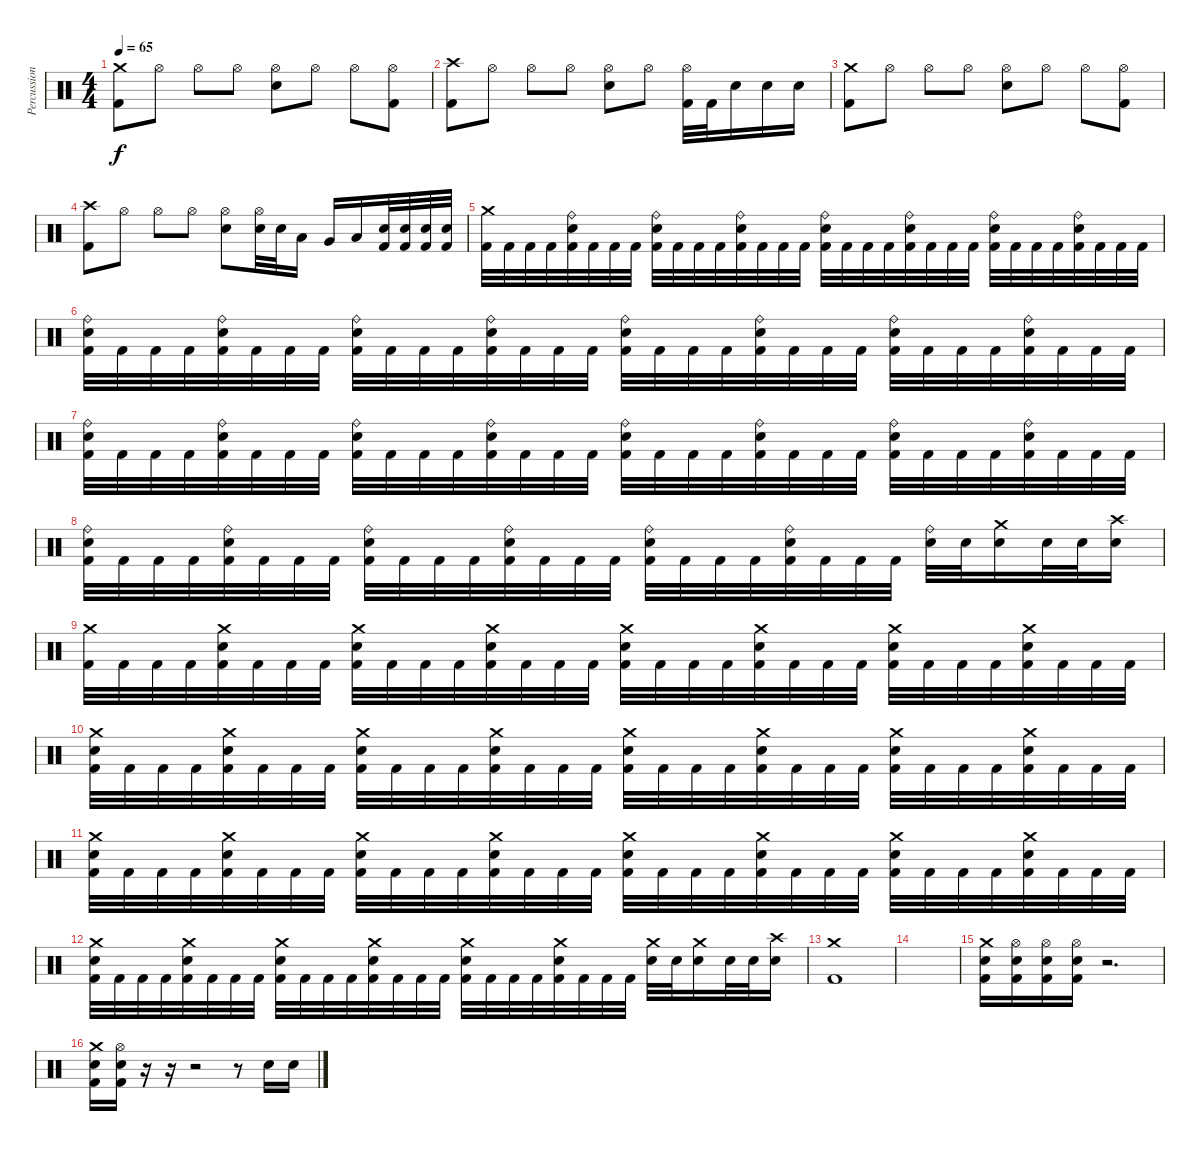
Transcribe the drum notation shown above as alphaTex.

\track ("Percussion" "Percussion") {instrument percussion}
\staff {score}
\articulation defaults
\ts (4 4)
\tempo 65
\clef neutral
\ks c
("Crash medium (hit)" "Kick (hit) 2").8{dy f} "Hi-Hat (open)".8 "Hi-Hat (open)".8 "Hi-Hat (open)".8 ("Hi-Hat (open)" "Electric Snare (hit)").8 "Hi-Hat (open)".8 "Hi-Hat (open)".8 ("Hi-Hat (open)" "Kick (hit) 2").8 |
("Crash high (hit)" "Kick (hit) 2").8 "Hi-Hat (open)".8 "Hi-Hat (open)".8 "Hi-Hat (open)".8 ("Hi-Hat (open)" "Electric Snare (hit)").8 "Hi-Hat (open)".8 ("Hi-Hat (open)" "Kick (hit) 2").32 "Kick (hit) 2".32 "Electric Snare (hit)".16 "Electric Snare (hit)".16 "Electric Snare (hit)".16 |
("Crash medium (hit)" "Kick (hit) 2").8 "Hi-Hat (open)".8 "Hi-Hat (open)".8 "Hi-Hat (open)".8 ("Hi-Hat (open)" "Electric Snare (hit)").8 "Hi-Hat (open)".8 "Hi-Hat (open)".8 ("Hi-Hat (open)" "Kick (hit) 2").8 |
("Crash high (hit)" "Kick (hit) 2").8 "Hi-Hat (open)".8 "Hi-Hat (open)".8 "Hi-Hat (open)".8 ("Hi-Hat (open)" "Electric Snare (hit)").8 ("Hi-Hat (open)" "Electric Snare (hit)").32 "Electric Snare (hit)".32 "Low Tom (hit)".16 "Very Low Tom (hit)".16 "Low Floor Tom (hit)".16 ("Electric Snare (hit)" "Kick (hit) 2").32 ("Electric Snare (hit)" "Kick (hit) 2").32 ("Electric Snare (hit)" "Kick (hit) 2").32 ("Electric Snare (hit)" "Kick (hit) 2").32 |
("Crash medium (hit)" "Kick (hit) 2").32 "Kick (hit) 2".32 "Kick (hit) 2".32 "Kick (hit) 2".32 ("Ride (bell)" "Electric Snare (hit)" "Kick (hit) 2").32 "Kick (hit) 2".32 "Kick (hit) 2".32 "Kick (hit) 2".32 ("Ride (bell)" "Electric Snare (hit)" "Kick (hit) 2").32 "Kick (hit) 2".32 "Kick (hit) 2".32 "Kick (hit) 2".32 ("Ride (bell)" "Electric Snare (hit)" "Kick (hit) 2").32 "Kick (hit) 2".32 "Kick (hit) 2".32 "Kick (hit) 2".32 ("Ride (bell)" "Electric Snare (hit)" "Kick (hit) 2").32 "Kick (hit) 2".32 "Kick (hit) 2".32 "Kick (hit) 2".32 ("Ride (bell)" "Electric Snare (hit)" "Kick (hit) 2").32 "Kick (hit) 2".32 "Kick (hit) 2".32 "Kick (hit) 2".32 ("Ride (bell)" "Electric Snare (hit)" "Kick (hit) 2").32 "Kick (hit) 2".32 "Kick (hit) 2".32 "Kick (hit) 2".32 ("Ride (bell)" "Electric Snare (hit)" "Kick (hit) 2").32 "Kick (hit) 2".32 "Kick (hit) 2".32 "Kick (hit) 2".32 |
("Ride (bell)" "Electric Snare (hit)" "Kick (hit) 2").32 "Kick (hit) 2".32 "Kick (hit) 2".32 "Kick (hit) 2".32 ("Ride (bell)" "Electric Snare (hit)" "Kick (hit) 2").32 "Kick (hit) 2".32 "Kick (hit) 2".32 "Kick (hit) 2".32 ("Ride (bell)" "Electric Snare (hit)" "Kick (hit) 2").32 "Kick (hit) 2".32 "Kick (hit) 2".32 "Kick (hit) 2".32 ("Ride (bell)" "Electric Snare (hit)" "Kick (hit) 2").32 "Kick (hit) 2".32 "Kick (hit) 2".32 "Kick (hit) 2".32 ("Ride (bell)" "Electric Snare (hit)" "Kick (hit) 2").32 "Kick (hit) 2".32 "Kick (hit) 2".32 "Kick (hit) 2".32 ("Ride (bell)" "Electric Snare (hit)" "Kick (hit) 2").32 "Kick (hit) 2".32 "Kick (hit) 2".32 "Kick (hit) 2".32 ("Ride (bell)" "Electric Snare (hit)" "Kick (hit) 2").32 "Kick (hit) 2".32 "Kick (hit) 2".32 "Kick (hit) 2".32 ("Ride (bell)" "Electric Snare (hit)" "Kick (hit) 2").32 "Kick (hit) 2".32 "Kick (hit) 2".32 "Kick (hit) 2".32 |
("Ride (bell)" "Electric Snare (hit)" "Kick (hit) 2").32 "Kick (hit) 2".32 "Kick (hit) 2".32 "Kick (hit) 2".32 ("Ride (bell)" "Electric Snare (hit)" "Kick (hit) 2").32 "Kick (hit) 2".32 "Kick (hit) 2".32 "Kick (hit) 2".32 ("Ride (bell)" "Electric Snare (hit)" "Kick (hit) 2").32 "Kick (hit) 2".32 "Kick (hit) 2".32 "Kick (hit) 2".32 ("Ride (bell)" "Electric Snare (hit)" "Kick (hit) 2").32 "Kick (hit) 2".32 "Kick (hit) 2".32 "Kick (hit) 2".32 ("Ride (bell)" "Electric Snare (hit)" "Kick (hit) 2").32 "Kick (hit) 2".32 "Kick (hit) 2".32 "Kick (hit) 2".32 ("Ride (bell)" "Electric Snare (hit)" "Kick (hit) 2").32 "Kick (hit) 2".32 "Kick (hit) 2".32 "Kick (hit) 2".32 ("Ride (bell)" "Electric Snare (hit)" "Kick (hit) 2").32 "Kick (hit) 2".32 "Kick (hit) 2".32 "Kick (hit) 2".32 ("Ride (bell)" "Electric Snare (hit)" "Kick (hit) 2").32 "Kick (hit) 2".32 "Kick (hit) 2".32 "Kick (hit) 2".32 |
("Ride (bell)" "Electric Snare (hit)" "Kick (hit) 2").32 "Kick (hit) 2".32 "Kick (hit) 2".32 "Kick (hit) 2".32 ("Ride (bell)" "Electric Snare (hit)" "Kick (hit) 2").32 "Kick (hit) 2".32 "Kick (hit) 2".32 "Kick (hit) 2".32 ("Ride (bell)" "Electric Snare (hit)" "Kick (hit) 2").32 "Kick (hit) 2".32 "Kick (hit) 2".32 "Kick (hit) 2".32 ("Ride (bell)" "Electric Snare (hit)" "Kick (hit) 2").32 "Kick (hit) 2".32 "Kick (hit) 2".32 "Kick (hit) 2".32 ("Ride (bell)" "Electric Snare (hit)" "Kick (hit) 2").32 "Kick (hit) 2".32 "Kick (hit) 2".32 "Kick (hit) 2".32 ("Ride (bell)" "Electric Snare (hit)" "Kick (hit) 2").32 "Kick (hit) 2".32 "Kick (hit) 2".32 "Kick (hit) 2".32 ("Ride (bell)" "Electric Snare (hit)").32 "Electric Snare (hit)".32 ("Crash medium (hit)" "Electric Snare (hit)").16 "Electric Snare (hit)".32 "Electric Snare (hit)".32 ("Crash high (hit)" "Electric Snare (hit)").16 |
("Crash medium (hit)" "Kick (hit) 2").32 "Kick (hit) 2".32 "Kick (hit) 2".32 "Kick (hit) 2".32 ("Crash medium (hit)" "Electric Snare (hit)" "Kick (hit) 2").32 "Kick (hit) 2".32 "Kick (hit) 2".32 "Kick (hit) 2".32 ("Crash medium (hit)" "Electric Snare (hit)" "Kick (hit) 2").32 "Kick (hit) 2".32 "Kick (hit) 2".32 "Kick (hit) 2".32 ("Crash medium (hit)" "Electric Snare (hit)" "Kick (hit) 2").32 "Kick (hit) 2".32 "Kick (hit) 2".32 "Kick (hit) 2".32 ("Crash medium (hit)" "Electric Snare (hit)" "Kick (hit) 2").32 "Kick (hit) 2".32 "Kick (hit) 2".32 "Kick (hit) 2".32 ("Crash medium (hit)" "Electric Snare (hit)" "Kick (hit) 2").32 "Kick (hit) 2".32 "Kick (hit) 2".32 "Kick (hit) 2".32 ("Crash medium (hit)" "Electric Snare (hit)" "Kick (hit) 2").32 "Kick (hit) 2".32 "Kick (hit) 2".32 "Kick (hit) 2".32 ("Crash medium (hit)" "Electric Snare (hit)" "Kick (hit) 2").32 "Kick (hit) 2".32 "Kick (hit) 2".32 "Kick (hit) 2".32 |
("Crash medium (hit)" "Electric Snare (hit)" "Kick (hit) 2").32 "Kick (hit) 2".32 "Kick (hit) 2".32 "Kick (hit) 2".32 ("Crash medium (hit)" "Electric Snare (hit)" "Kick (hit) 2").32 "Kick (hit) 2".32 "Kick (hit) 2".32 "Kick (hit) 2".32 ("Crash medium (hit)" "Electric Snare (hit)" "Kick (hit) 2").32 "Kick (hit) 2".32 "Kick (hit) 2".32 "Kick (hit) 2".32 ("Crash medium (hit)" "Electric Snare (hit)" "Kick (hit) 2").32 "Kick (hit) 2".32 "Kick (hit) 2".32 "Kick (hit) 2".32 ("Crash medium (hit)" "Electric Snare (hit)" "Kick (hit) 2").32 "Kick (hit) 2".32 "Kick (hit) 2".32 "Kick (hit) 2".32 ("Crash medium (hit)" "Electric Snare (hit)" "Kick (hit) 2").32 "Kick (hit) 2".32 "Kick (hit) 2".32 "Kick (hit) 2".32 ("Crash medium (hit)" "Electric Snare (hit)" "Kick (hit) 2").32 "Kick (hit) 2".32 "Kick (hit) 2".32 "Kick (hit) 2".32 ("Crash medium (hit)" "Electric Snare (hit)" "Kick (hit) 2").32 "Kick (hit) 2".32 "Kick (hit) 2".32 "Kick (hit) 2".32 |
("Crash medium (hit)" "Electric Snare (hit)" "Kick (hit) 2").32 "Kick (hit) 2".32 "Kick (hit) 2".32 "Kick (hit) 2".32 ("Crash medium (hit)" "Electric Snare (hit)" "Kick (hit) 2").32 "Kick (hit) 2".32 "Kick (hit) 2".32 "Kick (hit) 2".32 ("Crash medium (hit)" "Electric Snare (hit)" "Kick (hit) 2").32 "Kick (hit) 2".32 "Kick (hit) 2".32 "Kick (hit) 2".32 ("Crash medium (hit)" "Electric Snare (hit)" "Kick (hit) 2").32 "Kick (hit) 2".32 "Kick (hit) 2".32 "Kick (hit) 2".32 ("Crash medium (hit)" "Electric Snare (hit)" "Kick (hit) 2").32 "Kick (hit) 2".32 "Kick (hit) 2".32 "Kick (hit) 2".32 ("Crash medium (hit)" "Electric Snare (hit)" "Kick (hit) 2").32 "Kick (hit) 2".32 "Kick (hit) 2".32 "Kick (hit) 2".32 ("Crash medium (hit)" "Electric Snare (hit)" "Kick (hit) 2").32 "Kick (hit) 2".32 "Kick (hit) 2".32 "Kick (hit) 2".32 ("Crash medium (hit)" "Electric Snare (hit)" "Kick (hit) 2").32 "Kick (hit) 2".32 "Kick (hit) 2".32 "Kick (hit) 2".32 |
("Crash medium (hit)" "Electric Snare (hit)" "Kick (hit) 2").32 "Kick (hit) 2".32 "Kick (hit) 2".32 "Kick (hit) 2".32 ("Crash medium (hit)" "Electric Snare (hit)" "Kick (hit) 2").32 "Kick (hit) 2".32 "Kick (hit) 2".32 "Kick (hit) 2".32 ("Crash medium (hit)" "Electric Snare (hit)" "Kick (hit) 2").32 "Kick (hit) 2".32 "Kick (hit) 2".32 "Kick (hit) 2".32 ("Crash medium (hit)" "Electric Snare (hit)" "Kick (hit) 2").32 "Kick (hit) 2".32 "Kick (hit) 2".32 "Kick (hit) 2".32 ("Crash medium (hit)" "Electric Snare (hit)" "Kick (hit) 2").32 "Kick (hit) 2".32 "Kick (hit) 2".32 "Kick (hit) 2".32 ("Crash medium (hit)" "Electric Snare (hit)" "Kick (hit) 2").32 "Kick (hit) 2".32 "Kick (hit) 2".32 "Kick (hit) 2".32 ("Crash medium (hit)" "Electric Snare (hit)").32 "Electric Snare (hit)".32 ("Crash medium (hit)" "Electric Snare (hit)").16 "Electric Snare (hit)".32 "Electric Snare (hit)".32 ("Crash high (hit)" "Electric Snare (hit)").16 |
("Crash medium (hit)" "Kick (hit) 2").1 |
|
("Crash medium (hit)" "Electric Snare (hit)" "Kick (hit) 2").16 ("Hi-Hat (open)" "Electric Snare (hit)" "Kick (hit) 2").16 ("Hi-Hat (open)" "Electric Snare (hit)" "Kick (hit) 2").16 ("Hi-Hat (open)" "Electric Snare (hit)" "Kick (hit) 2").16 r.2{d} |
("Crash medium (hit)" "Electric Snare (hit)" "Kick (hit) 2").16 ("Hi-Hat (open)" "Electric Snare (hit)" "Kick (hit) 2").16 r.16 r.16 r.2 r.8 "Electric Snare (hit)".16 "Electric Snare (hit)".16
